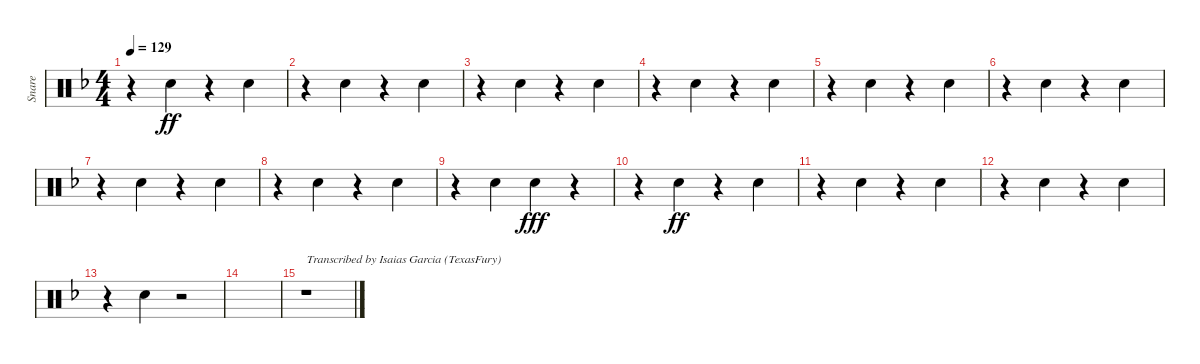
\track ("Snare" "Snare") {instrument percussion}
\staff {score}
\articulation defaults
\ts (4 4)
\tempo 129
\clef neutral
\ks dminor
r.4{dy ff} "Electric Snare (hit)".4 r.4 "Electric Snare (hit)".4 |
r.4 "Electric Snare (hit)".4 r.4 "Electric Snare (hit)".4 |
r.4 "Electric Snare (hit)".4 r.4 "Electric Snare (hit)".4 |
r.4 "Electric Snare (hit)".4 r.4 "Electric Snare (hit)".4 |
r.4 "Electric Snare (hit)".4 r.4 "Electric Snare (hit)".4 |
r.4 "Electric Snare (hit)".4 r.4 "Electric Snare (hit)".4 |
r.4 "Electric Snare (hit)".4 r.4 "Electric Snare (hit)".4 |
r.4 "Electric Snare (hit)".4 r.4 "Electric Snare (hit)".4 |
r.4 "Electric Snare (hit)".4 "Electric Snare (hit)".4{dy fff} r.4 |
r.4 "Electric Snare (hit)".4{dy ff} r.4 "Electric Snare (hit)".4 |
r.4 "Electric Snare (hit)".4 r.4 "Electric Snare (hit)".4 |
r.4 "Electric Snare (hit)".4 r.4 "Electric Snare (hit)".4 |
r.4 "Electric Snare (hit)".4 r.2 |
|
r.1{txt "Transcribed by Isaias Garcia (TexasFury)"}
